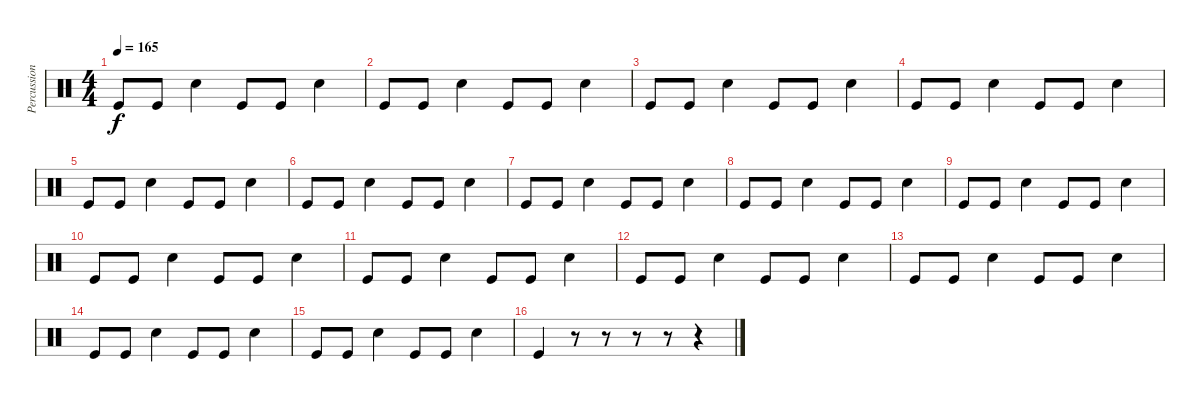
\track ("Percussion" "Percussion") {instrument percussion}
\staff {score}
\articulation defaults
\ts (4 4)
\tempo 165
\clef neutral
\ks c "Kick (hit)".8{dy f} "Kick (hit)".8 "Snare (hit) 2".4 "Kick (hit)".8 "Kick (hit)".8 "Snare (hit) 2".4
|
"Kick (hit)".8 "Kick (hit)".8 "Snare (hit) 2".4 "Kick (hit)".8 "Kick (hit)".8 "Snare (hit) 2".4 |
"Kick (hit)".8 "Kick (hit)".8 "Snare (hit) 2".4 "Kick (hit)".8 "Kick (hit)".8 "Snare (hit) 2".4 |
"Kick (hit)".8 "Kick (hit)".8 "Snare (hit) 2".4 "Kick (hit)".8 "Kick (hit)".8 "Snare (hit) 2".4 |
"Kick (hit)".8 "Kick (hit)".8 "Snare (hit) 2".4 "Kick (hit)".8 "Kick (hit)".8 "Snare (hit) 2".4 |
"Kick (hit)".8 "Kick (hit)".8 "Snare (hit) 2".4 "Kick (hit)".8 "Kick (hit)".8 "Snare (hit) 2".4 |
"Kick (hit)".8 "Kick (hit)".8 "Snare (hit) 2".4 "Kick (hit)".8 "Kick (hit)".8 "Snare (hit) 2".4 |
"Kick (hit)".8 "Kick (hit)".8 "Snare (hit) 2".4 "Kick (hit)".8 "Kick (hit)".8 "Snare (hit) 2".4 |
"Kick (hit)".8 "Kick (hit)".8 "Snare (hit) 2".4 "Kick (hit)".8 "Kick (hit)".8 "Snare (hit) 2".4 |
"Kick (hit)".8 "Kick (hit)".8 "Snare (hit) 2".4 "Kick (hit)".8 "Kick (hit)".8 "Snare (hit) 2".4 |
"Kick (hit)".8 "Kick (hit)".8 "Snare (hit) 2".4 "Kick (hit)".8 "Kick (hit)".8 "Snare (hit) 2".4 |
"Kick (hit)".8 "Kick (hit)".8 "Snare (hit) 2".4 "Kick (hit)".8 "Kick (hit)".8 "Snare (hit) 2".4 |
"Kick (hit)".8 "Kick (hit)".8 "Snare (hit) 2".4 "Kick (hit)".8 "Kick (hit)".8 "Snare (hit) 2".4 |
"Kick (hit)".8 "Kick (hit)".8 "Snare (hit) 2".4 "Kick (hit)".8 "Kick (hit)".8 "Snare (hit) 2".4 |
"Kick (hit)".8 "Kick (hit)".8 "Snare (hit) 2".4 "Kick (hit)".8 "Kick (hit)".8 "Snare (hit) 2".4 |
"Kick (hit)".4 r.8 r.8 r.8 r.8 r.4
